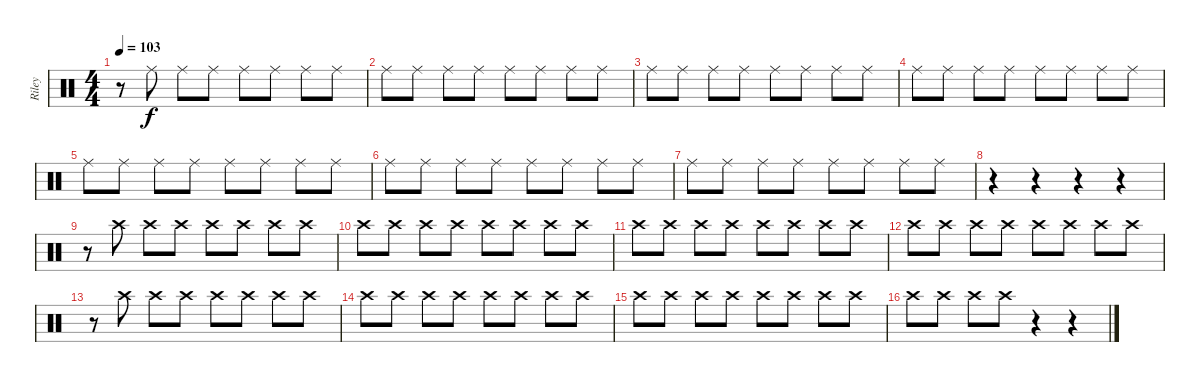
\track ("Riley" "Riley") {instrument percussion}
\staff {score}
\articulation defaults
\ts (4 4)
\tempo 103
\clef neutral
\ks c
r.8{dy f} "Ride (middle)".8 "Ride (middle)".8 "Ride (middle)".8 "Ride (middle)".8 "Ride (middle)".8 "Ride (middle)".8 "Ride (middle)".8 |
"Ride (middle)".8 "Ride (middle)".8 "Ride (middle)".8 "Ride (middle)".8 "Ride (middle)".8 "Ride (middle)".8 "Ride (middle)".8 "Ride (middle)".8 |
"Ride (middle)".8 "Ride (middle)".8 "Ride (middle)".8 "Ride (middle)".8 "Ride (middle)".8 "Ride (middle)".8 "Ride (middle)".8 "Ride (middle)".8 |
"Ride (middle)".8 "Ride (middle)".8 "Ride (middle)".8 "Ride (middle)".8 "Ride (middle)".8 "Ride (middle)".8 "Ride (middle)".8 "Ride (middle)".8 |
"Ride (middle)".8 "Ride (middle)".8 "Ride (middle)".8 "Ride (middle)".8 "Ride (middle)".8 "Ride (middle)".8 "Ride (middle)".8 "Ride (middle)".8 |
"Ride (middle)".8 "Ride (middle)".8 "Ride (middle)".8 "Ride (middle)".8 "Ride (middle)".8 "Ride (middle)".8 "Ride (middle)".8 "Ride (middle)".8 |
"Ride (middle)".8 "Ride (middle)".8 "Ride (middle)".8 "Ride (middle)".8 "Ride (middle)".8 "Ride (middle)".8 "Ride (middle)".8 "Ride (middle)".8 |
r.4 r.4 r.4 r.4 |
r.8 "Crash high (hit)".8 "Crash high (hit)".8 "Crash high (hit)".8 "Crash high (hit)".8 "Crash high (hit)".8 "Crash high (hit)".8 "Crash high (hit)".8 |
"Crash high (hit)".8 "Crash high (hit)".8 "Crash high (hit)".8 "Crash high (hit)".8 "Crash high (hit)".8 "Crash high (hit)".8 "Crash high (hit)".8 "Crash high (hit)".8 |
"Crash high (hit)".8 "Crash high (hit)".8 "Crash high (hit)".8 "Crash high (hit)".8 "Crash high (hit)".8 "Crash high (hit)".8 "Crash high (hit)".8 "Crash high (hit)".8 |
"Crash high (hit)".8 "Crash high (hit)".8 "Crash high (hit)".8 "Crash high (hit)".8 "Crash high (hit)".8 "Crash high (hit)".8 "Crash high (hit)".8 "Crash high (hit)".8 |
r.8 "Crash high (hit)".8 "Crash high (hit)".8 "Crash high (hit)".8 "Crash high (hit)".8 "Crash high (hit)".8 "Crash high (hit)".8 "Crash high (hit)".8 |
"Crash high (hit)".8 "Crash high (hit)".8 "Crash high (hit)".8 "Crash high (hit)".8 "Crash high (hit)".8 "Crash high (hit)".8 "Crash high (hit)".8 "Crash high (hit)".8 |
"Crash high (hit)".8 "Crash high (hit)".8 "Crash high (hit)".8 "Crash high (hit)".8 "Crash high (hit)".8 "Crash high (hit)".8 "Crash high (hit)".8 "Crash high (hit)".8 |
"Crash high (hit)".8 "Crash high (hit)".8 "Crash high (hit)".8 "Crash high (hit)".8 r.4 r.4
